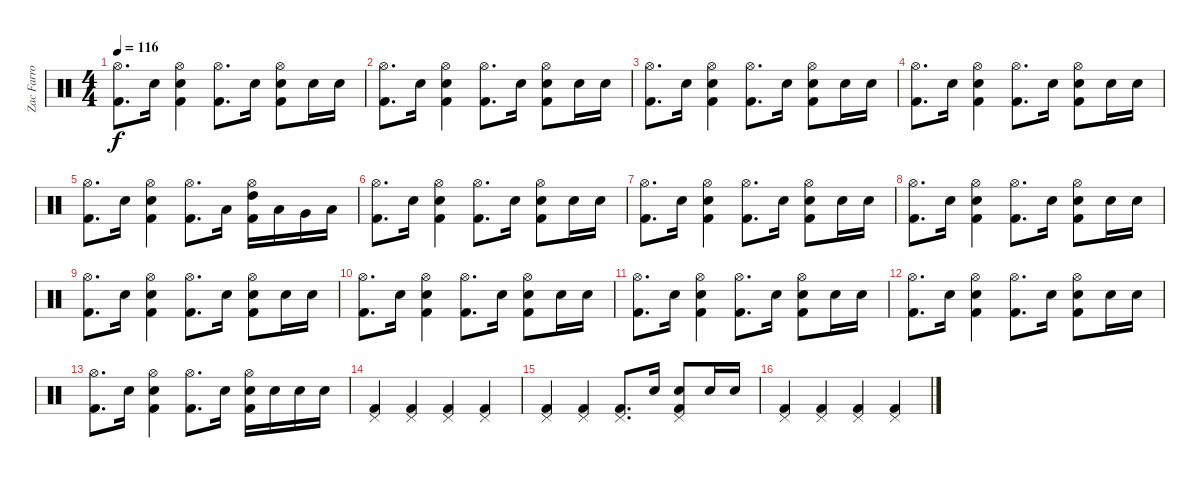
\track ("Zac Farro" "Zac Farro") {instrument percussion}
\staff {score}
\articulation defaults
\ts (4 4)
\tempo 116
\clef neutral
\ks c
("Hi-Hat (open)" "Kick (hit) 2").8{d dy f} "Electric Snare (hit)".16 ("Hi-Hat (open)" "Kick (hit) 2" "Electric Snare (hit)").4 ("Hi-Hat (open)" "Kick (hit) 2").8{d} "Electric Snare (hit)".16 ("Hi-Hat (open)" "Kick (hit) 2" "Electric Snare (hit)").8 "Electric Snare (hit)".16 "Electric Snare (hit)".16 |
("Hi-Hat (open)" "Kick (hit) 2").8{d} "Electric Snare (hit)".16 ("Hi-Hat (open)" "Kick (hit) 2" "Electric Snare (hit)").4 ("Hi-Hat (open)" "Kick (hit) 2").8{d} "Electric Snare (hit)".16 ("Hi-Hat (open)" "Kick (hit) 2" "Electric Snare (hit)").8 "Electric Snare (hit)".16 "Electric Snare (hit)".16 |
("Hi-Hat (open)" "Kick (hit) 2").8{d} "Electric Snare (hit)".16 ("Hi-Hat (open)" "Kick (hit) 2" "Electric Snare (hit)").4 ("Hi-Hat (open)" "Kick (hit) 2").8{d} "Electric Snare (hit)".16 ("Hi-Hat (open)" "Kick (hit) 2" "Electric Snare (hit)").8 "Electric Snare (hit)".16 "Electric Snare (hit)".16 |
("Hi-Hat (open)" "Kick (hit) 2").8{d} "Electric Snare (hit)".16 ("Hi-Hat (open)" "Kick (hit) 2" "Electric Snare (hit)").4 ("Hi-Hat (open)" "Kick (hit) 2").8{d} "Electric Snare (hit)".16 ("Hi-Hat (open)" "Kick (hit) 2" "Electric Snare (hit)").8 "Electric Snare (hit)".16 "Electric Snare (hit)".16 |
("Hi-Hat (open)" "Kick (hit) 2").8{d} "Electric Snare (hit)".16 ("Hi-Hat (open)" "Kick (hit) 2" "Electric Snare (hit)").4 ("Hi-Hat (open)" "Kick (hit) 2").8{d} "Low Floor Tom (hit)".16 ("Hi-Hat (open)" "Kick (hit) 2" "High Tom (hit)").16 "Low Tom (hit)".16 "Very Low Tom (hit)".16 "Low Floor Tom (hit)".16 |
("Hi-Hat (open)" "Kick (hit) 2").8{d} "Electric Snare (hit)".16 ("Hi-Hat (open)" "Kick (hit) 2" "Electric Snare (hit)").4 ("Hi-Hat (open)" "Kick (hit) 2").8{d} "Electric Snare (hit)".16 ("Hi-Hat (open)" "Kick (hit) 2" "Electric Snare (hit)").8 "Electric Snare (hit)".16 "Electric Snare (hit)".16 |
("Hi-Hat (open)" "Kick (hit) 2").8{d} "Electric Snare (hit)".16 ("Hi-Hat (open)" "Kick (hit) 2" "Electric Snare (hit)").4 ("Hi-Hat (open)" "Kick (hit) 2").8{d} "Electric Snare (hit)".16 ("Hi-Hat (open)" "Kick (hit) 2" "Electric Snare (hit)").8 "Electric Snare (hit)".16 "Electric Snare (hit)".16 |
("Hi-Hat (open)" "Kick (hit) 2").8{d} "Electric Snare (hit)".16 ("Hi-Hat (open)" "Kick (hit) 2" "Electric Snare (hit)").4 ("Hi-Hat (open)" "Kick (hit) 2").8{d} "Electric Snare (hit)".16 ("Hi-Hat (open)" "Kick (hit) 2" "Electric Snare (hit)").8 "Electric Snare (hit)".16 "Electric Snare (hit)".16 |
("Hi-Hat (open)" "Kick (hit) 2").8{d} "Electric Snare (hit)".16 ("Hi-Hat (open)" "Kick (hit) 2" "Electric Snare (hit)").4 ("Hi-Hat (open)" "Kick (hit) 2").8{d} "Electric Snare (hit)".16 ("Hi-Hat (open)" "Kick (hit) 2" "Electric Snare (hit)").8 "Electric Snare (hit)".16 "Electric Snare (hit)".16 |
("Hi-Hat (open)" "Kick (hit) 2").8{d} "Electric Snare (hit)".16 ("Hi-Hat (open)" "Kick (hit) 2" "Electric Snare (hit)").4 ("Hi-Hat (open)" "Kick (hit) 2").8{d} "Electric Snare (hit)".16 ("Hi-Hat (open)" "Kick (hit) 2" "Electric Snare (hit)").8 "Electric Snare (hit)".16 "Electric Snare (hit)".16 |
("Hi-Hat (open)" "Kick (hit) 2").8{d} "Electric Snare (hit)".16 ("Hi-Hat (open)" "Kick (hit) 2" "Electric Snare (hit)").4 ("Hi-Hat (open)" "Kick (hit) 2").8{d} "Electric Snare (hit)".16 ("Hi-Hat (open)" "Kick (hit) 2" "Electric Snare (hit)").8 "Electric Snare (hit)".16 "Electric Snare (hit)".16 |
("Hi-Hat (open)" "Kick (hit) 2").8{d} "Electric Snare (hit)".16 ("Hi-Hat (open)" "Kick (hit) 2" "Electric Snare (hit)").4 ("Hi-Hat (open)" "Kick (hit) 2").8{d} "Electric Snare (hit)".16 ("Hi-Hat (open)" "Kick (hit) 2" "Electric Snare (hit)").8 "Electric Snare (hit)".16 "Electric Snare (hit)".16 |
("Hi-Hat (open)" "Kick (hit) 2").8{d} "Electric Snare (hit)".16 ("Hi-Hat (open)" "Kick (hit) 2" "Electric Snare (hit)").4 ("Hi-Hat (open)" "Kick (hit) 2").8{d} "Electric Snare (hit)".16 ("Hi-Hat (open)" "Kick (hit) 2" "Electric Snare (hit)").16 "Electric Snare (hit)".16 "Electric Snare (hit)".16 "Electric Snare (hit)".16 |
("Pedal Hi-Hat (hit)" "Kick (hit) 2").4 ("Pedal Hi-Hat (hit)" "Kick (hit) 2").4 ("Pedal Hi-Hat (hit)" "Kick (hit) 2").4 ("Pedal Hi-Hat (hit)" "Kick (hit) 2").4 |
("Pedal Hi-Hat (hit)" "Kick (hit) 2").4 ("Pedal Hi-Hat (hit)" "Kick (hit) 2").4 ("Pedal Hi-Hat (hit)" "Kick (hit) 2").8{d} "Electric Snare (hit)".16 ("Pedal Hi-Hat (hit)" "Kick (hit) 2" "Electric Snare (hit)").8 "Electric Snare (hit)".16 "Electric Snare (hit)".16 |
("Pedal Hi-Hat (hit)" "Kick (hit) 2").4 ("Pedal Hi-Hat (hit)" "Kick (hit) 2").4 ("Pedal Hi-Hat (hit)" "Kick (hit) 2").4 ("Pedal Hi-Hat (hit)" "Kick (hit) 2").4
